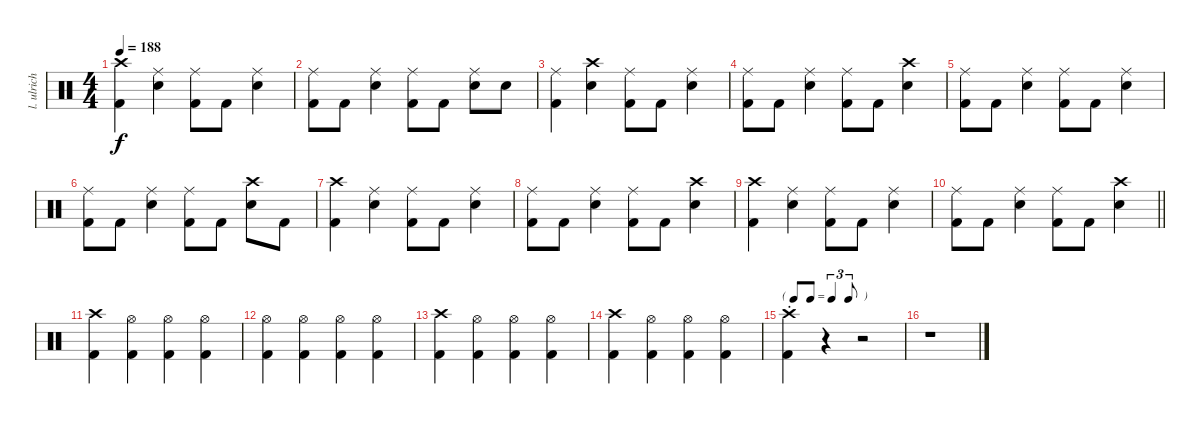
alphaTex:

\track ("l. ulrich - drums" "l. ulrich ") {instrument percussion}
\staff {score}
\articulation defaults
\ts (4 4)
\tempo 188
\clef neutral
\ks c
("Crash high (hit)" "Kick (hit) 2").4{dy f} ("Ride (middle)" "Snare (hit) 2").4 ("Ride (middle)" "Kick (hit) 2").8 "Kick (hit) 2".8 ("Ride (middle)" "Snare (hit) 2").4 |
("Ride (middle)" "Kick (hit) 2").8 "Kick (hit) 2".8 ("Ride (middle)" "Snare (hit) 2").4 ("Ride (middle)" "Kick (hit) 2").8 "Kick (hit) 2".8 ("Ride (middle)" "Snare (hit) 2").8 "Snare (hit) 2".8 |
("Ride (middle)" "Kick (hit) 2").4 ("Crash high (hit)" "Snare (hit) 2").4 ("Ride (middle)" "Kick (hit) 2").8 "Kick (hit) 2".8 ("Ride (middle)" "Snare (hit) 2").4 |
("Ride (middle)" "Kick (hit) 2").8 "Kick (hit) 2".8 ("Ride (middle)" "Snare (hit) 2").4 ("Ride (middle)" "Kick (hit) 2").8 "Kick (hit) 2".8 ("Crash high (hit)" "Snare (hit) 2").4 |
("Ride (middle)" "Kick (hit) 2").8 "Kick (hit) 2".8 ("Ride (middle)" "Snare (hit) 2").4 ("Ride (middle)" "Kick (hit) 2").8 "Kick (hit) 2".8 ("Ride (middle)" "Snare (hit) 2").4 |
("Ride (middle)" "Kick (hit) 2").8 "Kick (hit) 2".8 ("Ride (middle)" "Snare (hit) 2").4 ("Ride (middle)" "Kick (hit) 2").8 "Kick (hit) 2".8 ("Crash high (hit)" "Snare (hit) 2").8 "Kick (hit) 2".8 |
("Crash high (hit)" "Kick (hit) 2").4 ("Ride (middle)" "Snare (hit) 2").4 ("Ride (middle)" "Kick (hit) 2").8 "Kick (hit) 2".8 ("Ride (middle)" "Snare (hit) 2").4 |
("Ride (middle)" "Kick (hit) 2").8 "Kick (hit) 2".8 ("Ride (middle)" "Snare (hit) 2").4 ("Ride (middle)" "Kick (hit) 2").8 "Kick (hit) 2".8 ("Crash high (hit)" "Snare (hit) 2").4 |
("Crash high (hit)" "Kick (hit) 2").4 ("Ride (middle)" "Snare (hit) 2").4 ("Ride (middle)" "Kick (hit) 2").8 "Kick (hit) 2".8 ("Ride (middle)" "Snare (hit) 2").4 |
\barLineRight lightlight
("Ride (middle)" "Kick (hit) 2").8 "Kick (hit) 2".8 ("Ride (middle)" "Snare (hit) 2").4 ("Ride (middle)" "Kick (hit) 2").8 "Kick (hit) 2".8 ("Crash high (hit)" "Snare (hit) 2").4 |
("Crash high (hit)" "Kick (hit) 2").4 ("Hi-Hat (open)" "Kick (hit) 2").4 ("Hi-Hat (open)" "Kick (hit) 2").4 ("Hi-Hat (open)" "Kick (hit) 2").4 |
("Hi-Hat (open)" "Kick (hit) 2").4 ("Hi-Hat (open)" "Kick (hit) 2").4 ("Hi-Hat (open)" "Kick (hit) 2").4 ("Hi-Hat (open)" "Kick (hit) 2").4 |
("Crash high (hit)" "Kick (hit) 2").4 ("Hi-Hat (open)" "Kick (hit) 2").4 ("Hi-Hat (open)" "Kick (hit) 2").4 ("Hi-Hat (open)" "Kick (hit) 2").4 |
("Crash high (hit)" "Kick (hit) 2").4 ("Hi-Hat (open)" "Kick (hit) 2").4 ("Hi-Hat (open)" "Kick (hit) 2").4 ("Hi-Hat (open)" "Kick (hit) 2").4 |
\tf triplet8th
("Crash high (hit)"{st} "Kick (hit) 2"{st}).4 r.4 r.2 |
r.1
